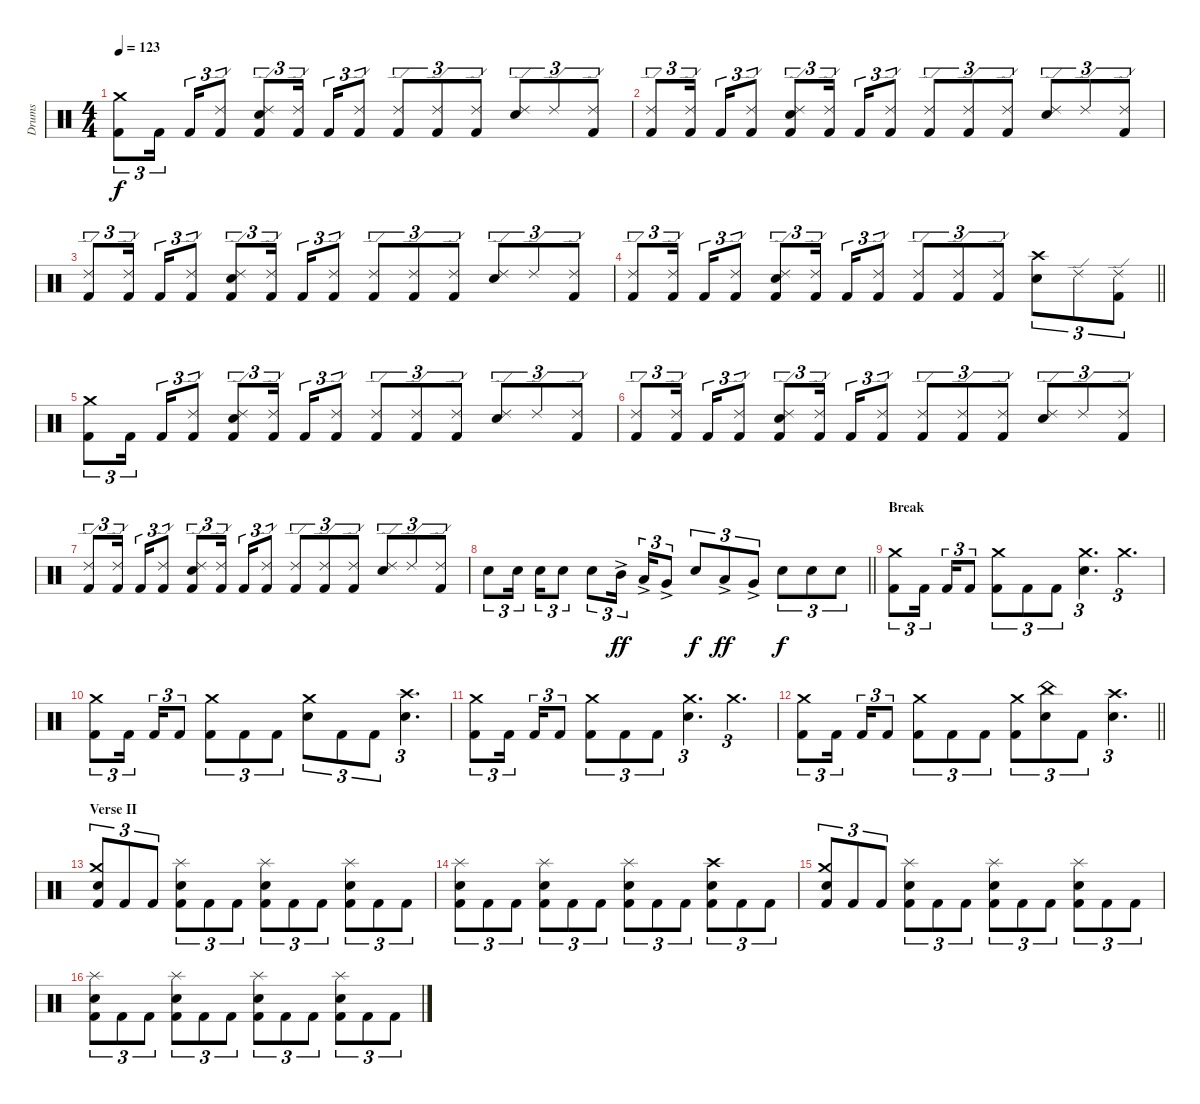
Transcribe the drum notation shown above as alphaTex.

\track ("Drums" "Drums") {instrument percussion}
\staff {score}
\articulation defaults
\ts (4 4)
\section ("" "")
\tempo 123
\clef neutral
\ks c
("Kick (hit) 2" "Crash medium (hit)").8{tu (3 2) dy f} "Kick (hit) 2".16{tu (3 2) beam splitsecondary} "Kick (hit) 2".16{tu (3 2)} ("Kick (hit) 2" "Ride (edge) 2").8{tu (3 2)} ("Kick (hit) 2" "Snare (hit) 2" "Ride (edge) 2").8{tu (3 2)} ("Kick (hit) 2" "Ride (edge) 2").16{tu (3 2) beam splitsecondary} "Kick (hit) 2".16{tu (3 2)} ("Kick (hit) 2" "Ride (edge) 2").8{tu (3 2)} ("Kick (hit) 2" "Ride (edge) 2").8{tu (3 2)} ("Kick (hit) 2" "Ride (edge) 2").8{tu (3 2)} ("Kick (hit) 2" "Ride (edge) 2").8{tu (3 2)} ("Snare (hit) 2" "Ride (edge) 2").8{tu (3 2)} "Ride (edge) 2".8{tu (3 2)} ("Kick (hit) 2" "Ride (edge) 2").8{tu (3 2)} |
("Kick (hit) 2" "Ride (edge) 2").8{tu (3 2)} ("Kick (hit) 2" "Ride (edge) 2").16{tu (3 2) beam splitsecondary} "Kick (hit) 2".16{tu (3 2)} ("Kick (hit) 2" "Ride (edge) 2").8{tu (3 2)} ("Kick (hit) 2" "Snare (hit) 2" "Ride (edge) 2").8{tu (3 2)} ("Kick (hit) 2" "Ride (edge) 2").16{tu (3 2) beam splitsecondary} "Kick (hit) 2".16{tu (3 2)} ("Kick (hit) 2" "Ride (edge) 2").8{tu (3 2)} ("Kick (hit) 2" "Ride (edge) 2").8{tu (3 2)} ("Kick (hit) 2" "Ride (edge) 2").8{tu (3 2)} ("Kick (hit) 2" "Ride (edge) 2").8{tu (3 2)} ("Snare (hit) 2" "Ride (edge) 2").8{tu (3 2)} "Ride (edge) 2".8{tu (3 2)} ("Kick (hit) 2" "Ride (edge) 2").8{tu (3 2)} |
("Kick (hit) 2" "Ride (edge) 2").8{tu (3 2)} ("Kick (hit) 2" "Ride (edge) 2").16{tu (3 2) beam splitsecondary} "Kick (hit) 2".16{tu (3 2)} ("Kick (hit) 2" "Ride (edge) 2").8{tu (3 2)} ("Kick (hit) 2" "Snare (hit) 2" "Ride (edge) 2").8{tu (3 2)} ("Kick (hit) 2" "Ride (edge) 2").16{tu (3 2) beam splitsecondary} "Kick (hit) 2".16{tu (3 2)} ("Kick (hit) 2" "Ride (edge) 2").8{tu (3 2)} ("Kick (hit) 2" "Ride (edge) 2").8{tu (3 2)} ("Kick (hit) 2" "Ride (edge) 2").8{tu (3 2)} ("Kick (hit) 2" "Ride (edge) 2").8{tu (3 2)} ("Snare (hit) 2" "Ride (edge) 2").8{tu (3 2)} "Ride (edge) 2".8{tu (3 2)} ("Kick (hit) 2" "Ride (edge) 2").8{tu (3 2)} |
\barLineRight lightlight
("Kick (hit) 2" "Ride (edge) 2").8{tu (3 2)} ("Kick (hit) 2" "Ride (edge) 2").16{tu (3 2) beam splitsecondary} "Kick (hit) 2".16{tu (3 2)} ("Kick (hit) 2" "Ride (edge) 2").8{tu (3 2)} ("Kick (hit) 2" "Snare (hit) 2" "Ride (edge) 2").8{tu (3 2)} ("Kick (hit) 2" "Ride (edge) 2").16{tu (3 2) beam splitsecondary} "Kick (hit) 2".16{tu (3 2)} ("Kick (hit) 2" "Ride (edge) 2").8{tu (3 2)} ("Kick (hit) 2" "Ride (edge) 2").8{tu (3 2)} ("Kick (hit) 2" "Ride (edge) 2").8{tu (3 2)} ("Kick (hit) 2" "Ride (edge) 2").8{tu (3 2)} ("Snare (hit) 2" "Crash high (hit)").8{tu (3 2)} "Ride (edge) 2".8{tu (3 2)} ("Kick (hit) 2" "Ride (edge) 2").8{tu (3 2)} |
("Kick (hit) 2" "Crash medium (hit)").8{tu (3 2)} "Kick (hit) 2".16{tu (3 2) beam splitsecondary} "Kick (hit) 2".16{tu (3 2)} ("Kick (hit) 2" "Ride (edge) 2").8{tu (3 2)} ("Kick (hit) 2" "Snare (hit) 2" "Ride (edge) 2").8{tu (3 2)} ("Kick (hit) 2" "Ride (edge) 2").16{tu (3 2) beam splitsecondary} "Kick (hit) 2".16{tu (3 2)} ("Kick (hit) 2" "Ride (edge) 2").8{tu (3 2)} ("Kick (hit) 2" "Ride (edge) 2").8{tu (3 2)} ("Kick (hit) 2" "Ride (edge) 2").8{tu (3 2)} ("Kick (hit) 2" "Ride (edge) 2").8{tu (3 2)} ("Snare (hit) 2" "Ride (edge) 2").8{tu (3 2)} "Ride (edge) 2".8{tu (3 2)} ("Kick (hit) 2" "Ride (edge) 2").8{tu (3 2)} |
("Kick (hit) 2" "Ride (edge) 2").8{tu (3 2)} ("Kick (hit) 2" "Ride (edge) 2").16{tu (3 2) beam splitsecondary} "Kick (hit) 2".16{tu (3 2)} ("Kick (hit) 2" "Ride (edge) 2").8{tu (3 2)} ("Kick (hit) 2" "Snare (hit) 2" "Ride (edge) 2").8{tu (3 2)} ("Kick (hit) 2" "Ride (edge) 2").16{tu (3 2) beam splitsecondary} "Kick (hit) 2".16{tu (3 2)} ("Kick (hit) 2" "Ride (edge) 2").8{tu (3 2)} ("Kick (hit) 2" "Ride (edge) 2").8{tu (3 2)} ("Kick (hit) 2" "Ride (edge) 2").8{tu (3 2)} ("Kick (hit) 2" "Ride (edge) 2").8{tu (3 2)} ("Snare (hit) 2" "Ride (edge) 2").8{tu (3 2)} "Ride (edge) 2".8{tu (3 2)} ("Kick (hit) 2" "Ride (edge) 2").8{tu (3 2)} |
("Kick (hit) 2" "Ride (edge) 2").8{tu (3 2)} ("Kick (hit) 2" "Ride (edge) 2").16{tu (3 2) beam splitsecondary} "Kick (hit) 2".16{tu (3 2)} ("Kick (hit) 2" "Ride (edge) 2").8{tu (3 2)} ("Kick (hit) 2" "Snare (hit) 2" "Ride (edge) 2").8{tu (3 2)} ("Kick (hit) 2" "Ride (edge) 2").16{tu (3 2) beam splitsecondary} "Kick (hit) 2".16{tu (3 2)} ("Kick (hit) 2" "Ride (edge) 2").8{tu (3 2)} ("Kick (hit) 2" "Ride (edge) 2").8{tu (3 2)} ("Kick (hit) 2" "Ride (edge) 2").8{tu (3 2)} ("Kick (hit) 2" "Ride (edge) 2").8{tu (3 2)} ("Snare (hit) 2" "Ride (edge) 2").8{tu (3 2)} "Ride (edge) 2".8{tu (3 2)} ("Kick (hit) 2" "Ride (edge) 2").8{tu (3 2)} |
\barLineRight lightlight "Snare (hit) 2".8{tu (3 2)} "Snare (hit) 2".16{tu (3 2) beam splitsecondary} "Snare (hit) 2".16{tu (3 2)} "Snare (hit) 2".8{tu (3 2)} "Snare (hit) 2".8{tu (3 2)} "Mid Tom (hit)"{ac}.16{tu (3 2) dy ff beam splitsecondary} "Low Tom (hit)"{ac}.16{tu (3 2)} "Very Low Tom (hit)"{ac}.8{tu (3 2)} "Snare (hit) 2".8{tu (3 2) dy f} "Low Tom (hit)"{ac}.8{tu (3 2) dy ff} "Very Low Tom (hit)"{ac}.8{tu (3 2)} "Snare (hit) 2".8{tu (3 2) dy f} "Snare (hit) 2".8{tu (3 2)} "Snare (hit) 2".8{tu (3 2)}
|
\section ("" "Break")
("Kick (hit) 2" "Crash medium (hit)").8{tu (3 2)} "Kick (hit) 2".16{tu (3 2) beam splitsecondary} "Kick (hit) 2".16{tu (3 2)} "Kick (hit) 2".8{tu (3 2)} ("Kick (hit) 2" "Crash medium (hit)").8{tu (3 2)} "Kick (hit) 2".8{tu (3 2)} "Kick (hit) 2".8{tu (3 2)} ("Snare (hit) 2" "Crash medium (hit)").4{d tu (3 2)} "Crash medium (hit)".4{d tu (3 2)} |
("Kick (hit) 2" "Crash medium (hit)").8{tu (3 2)} "Kick (hit) 2".16{tu (3 2) beam splitsecondary} "Kick (hit) 2".16{tu (3 2)} "Kick (hit) 2".8{tu (3 2)} ("Kick (hit) 2" "Crash medium (hit)").8{tu (3 2)} "Kick (hit) 2".8{tu (3 2)} "Kick (hit) 2".8{tu (3 2)} ("Snare (hit) 2" "Crash medium (hit)").8{tu (3 2)} "Kick (hit) 2".8{tu (3 2)} "Kick (hit) 2".8{tu (3 2)} ("Snare (hit) 2" "Crash high (hit)").4{d tu (3 2)} |
("Kick (hit) 2" "Crash medium (hit)").8{tu (3 2)} "Kick (hit) 2".16{tu (3 2) beam splitsecondary} "Kick (hit) 2".16{tu (3 2)} "Kick (hit) 2".8{tu (3 2)} ("Kick (hit) 2" "Crash medium (hit)").8{tu (3 2)} "Kick (hit) 2".8{tu (3 2)} "Kick (hit) 2".8{tu (3 2)} ("Snare (hit) 2" "Crash medium (hit)").4{d tu (3 2)} "Crash medium (hit)".4{d tu (3 2)} |
\barLineRight lightlight
("Kick (hit) 2" "Crash medium (hit)").8{tu (3 2)} "Kick (hit) 2".16{tu (3 2) beam splitsecondary} "Kick (hit) 2".16{tu (3 2)} "Kick (hit) 2".8{tu (3 2)} ("Kick (hit) 2" "Crash medium (hit)").8{tu (3 2)} "Kick (hit) 2".8{tu (3 2)} "Kick (hit) 2".8{tu (3 2)} ("Kick (hit) 2" "Crash medium (hit)").8{tu (3 2)} ("Snare (hit) 2" "China (hit)").8{tu (3 2)} "Kick (hit) 2".8{tu (3 2)} ("Snare (hit) 2" "Crash high (hit)").4{d tu (3 2)} |
\section ("" "Verse II")
("Kick (hit) 2" "Snare (hit) 2" "Crash medium (hit)").8{tu (3 2)} "Kick (hit) 2".8{tu (3 2)} "Kick (hit) 2".8{tu (3 2)} ("Kick (hit) 2" "Snare (hit) 2" "Splash (hit)").8{tu (3 2)} "Kick (hit) 2".8{tu (3 2)} "Kick (hit) 2".8{tu (3 2)} ("Kick (hit) 2" "Snare (hit) 2" "Splash (hit)").8{tu (3 2)} "Kick (hit) 2".8{tu (3 2)} "Kick (hit) 2".8{tu (3 2)} ("Kick (hit) 2" "Snare (hit) 2" "Splash (hit)").8{tu (3 2)} "Kick (hit) 2".8{tu (3 2)} "Kick (hit) 2".8{tu (3 2)} |
("Kick (hit) 2" "Snare (hit) 2" "Splash (hit)").8{tu (3 2)} "Kick (hit) 2".8{tu (3 2)} "Kick (hit) 2".8{tu (3 2)} ("Kick (hit) 2" "Snare (hit) 2" "Splash (hit)").8{tu (3 2)} "Kick (hit) 2".8{tu (3 2)} "Kick (hit) 2".8{tu (3 2)} ("Kick (hit) 2" "Snare (hit) 2" "Splash (hit)").8{tu (3 2)} "Kick (hit) 2".8{tu (3 2)} "Kick (hit) 2".8{tu (3 2)} ("Kick (hit) 2" "Snare (hit) 2" "Crash high (hit)").8{tu (3 2)} "Kick (hit) 2".8{tu (3 2)} "Kick (hit) 2".8{tu (3 2)} |
("Kick (hit) 2" "Snare (hit) 2" "Crash medium (hit)").8{tu (3 2)} "Kick (hit) 2".8{tu (3 2)} "Kick (hit) 2".8{tu (3 2)} ("Kick (hit) 2" "Snare (hit) 2" "Splash (hit)").8{tu (3 2)} "Kick (hit) 2".8{tu (3 2)} "Kick (hit) 2".8{tu (3 2)} ("Kick (hit) 2" "Snare (hit) 2" "Splash (hit)").8{tu (3 2)} "Kick (hit) 2".8{tu (3 2)} "Kick (hit) 2".8{tu (3 2)} ("Kick (hit) 2" "Snare (hit) 2" "Splash (hit)").8{tu (3 2)} "Kick (hit) 2".8{tu (3 2)} "Kick (hit) 2".8{tu (3 2)} |
("Kick (hit) 2" "Snare (hit) 2" "Splash (hit)").8{tu (3 2)} "Kick (hit) 2".8{tu (3 2)} "Kick (hit) 2".8{tu (3 2)} ("Kick (hit) 2" "Snare (hit) 2" "Splash (hit)").8{tu (3 2)} "Kick (hit) 2".8{tu (3 2)} "Kick (hit) 2".8{tu (3 2)} ("Kick (hit) 2" "Snare (hit) 2" "Splash (hit)").8{tu (3 2)} "Kick (hit) 2".8{tu (3 2)} "Kick (hit) 2".8{tu (3 2)} ("Kick (hit) 2" "Snare (hit) 2" "Splash (hit)").8{tu (3 2)} "Kick (hit) 2".8{tu (3 2)} "Kick (hit) 2".8{tu (3 2)}
